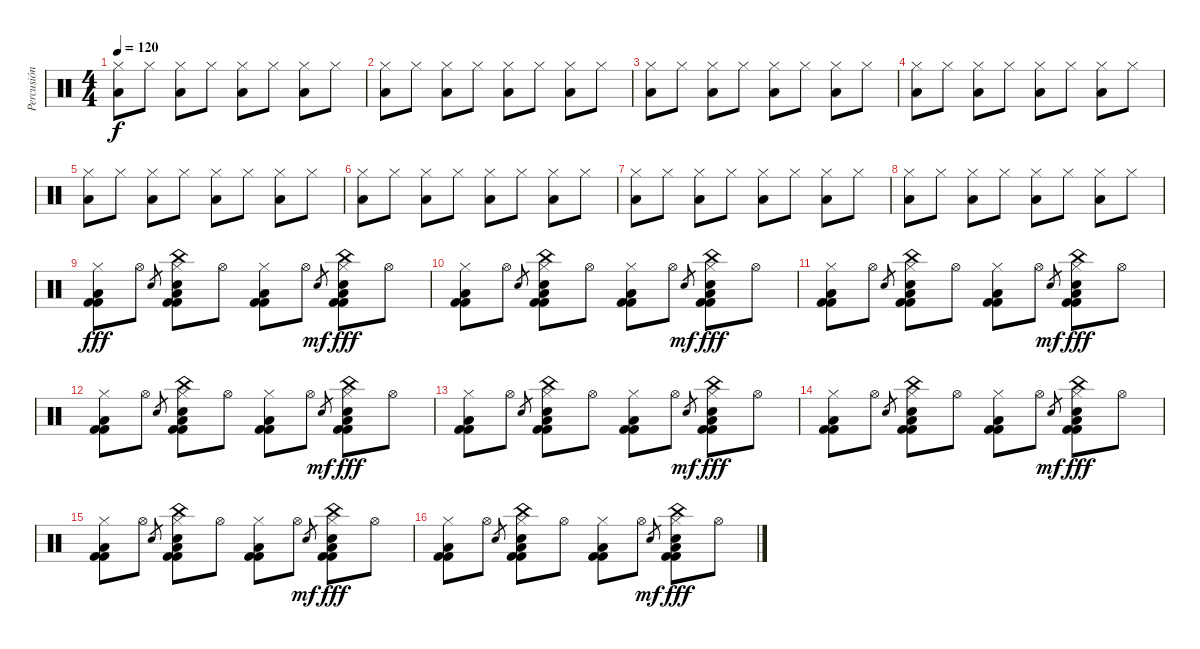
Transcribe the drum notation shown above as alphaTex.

\track ("Percusión II" "Percusión ") {instrument percussion}
\staff {score}
\articulation defaults
\ts (4 4)
\tempo 120
\clef neutral
\ks c
("Hi-Hat (closed)" "Low Floor Tom (hit)").8{dy f} "Hi-Hat (closed)".8 ("Hi-Hat (closed)" "Low Floor Tom (hit)").8 "Hi-Hat (closed)".8 ("Hi-Hat (closed)" "Low Floor Tom (hit)").8 "Hi-Hat (closed)".8 ("Hi-Hat (closed)" "Low Floor Tom (hit)").8 "Hi-Hat (closed)".8 |
("Hi-Hat (closed)" "Low Floor Tom (hit)").8 "Hi-Hat (closed)".8 ("Hi-Hat (closed)" "Low Floor Tom (hit)").8 "Hi-Hat (closed)".8 ("Hi-Hat (closed)" "Low Floor Tom (hit)").8 "Hi-Hat (closed)".8 ("Hi-Hat (closed)" "Low Floor Tom (hit)").8 "Hi-Hat (closed)".8 |
("Hi-Hat (closed)" "Low Floor Tom (hit)").8 "Hi-Hat (closed)".8 ("Hi-Hat (closed)" "Low Floor Tom (hit)").8 "Hi-Hat (closed)".8 ("Hi-Hat (closed)" "Low Floor Tom (hit)").8 "Hi-Hat (closed)".8 ("Hi-Hat (closed)" "Low Floor Tom (hit)").8 "Hi-Hat (closed)".8 |
("Hi-Hat (closed)" "Low Floor Tom (hit)").8 "Hi-Hat (closed)".8 ("Hi-Hat (closed)" "Low Floor Tom (hit)").8 "Hi-Hat (closed)".8 ("Hi-Hat (closed)" "Low Floor Tom (hit)").8 "Hi-Hat (closed)".8 ("Hi-Hat (closed)" "Low Floor Tom (hit)").8 "Hi-Hat (closed)".8 |
("Hi-Hat (closed)" "Low Floor Tom (hit)").8 "Hi-Hat (closed)".8 ("Hi-Hat (closed)" "Low Floor Tom (hit)").8 "Hi-Hat (closed)".8 ("Hi-Hat (closed)" "Low Floor Tom (hit)").8 "Hi-Hat (closed)".8 ("Hi-Hat (closed)" "Low Floor Tom (hit)").8 "Hi-Hat (closed)".8 |
("Hi-Hat (closed)" "Low Floor Tom (hit)").8 "Hi-Hat (closed)".8 ("Hi-Hat (closed)" "Low Floor Tom (hit)").8 "Hi-Hat (closed)".8 ("Hi-Hat (closed)" "Low Floor Tom (hit)").8 "Hi-Hat (closed)".8 ("Hi-Hat (closed)" "Low Floor Tom (hit)").8 "Hi-Hat (closed)".8 |
("Hi-Hat (closed)" "Low Floor Tom (hit)").8 "Hi-Hat (closed)".8 ("Hi-Hat (closed)" "Low Floor Tom (hit)").8 "Hi-Hat (closed)".8 ("Hi-Hat (closed)" "Low Floor Tom (hit)").8 "Hi-Hat (closed)".8 ("Hi-Hat (closed)" "Low Floor Tom (hit)").8 "Hi-Hat (closed)".8 |
("Hi-Hat (closed)" "Low Floor Tom (hit)").8 "Hi-Hat (closed)".8 ("Hi-Hat (closed)" "Low Floor Tom (hit)").8 "Hi-Hat (closed)".8 ("Hi-Hat (closed)" "Low Floor Tom (hit)").8 "Hi-Hat (closed)".8 ("Hi-Hat (closed)" "Low Floor Tom (hit)").8 "Hi-Hat (closed)".8 |
("Kick (hit) 2" "Hi-Hat (closed)" "Low Floor Tom (hit)" "Kick (hit) 2").8{dy fff} "Hi-Hat (open)".8 "Hand Clap (hit)".8{gr} ("Kick (hit) 2" "Hi-Hat (closed)" "Electric Snare (hit)" "China (hit)" "Low Floor Tom (hit)" "Kick (hit) 2").8 "Hi-Hat (open)".8 ("Kick (hit) 2" "Hi-Hat (closed)" "Low Floor Tom (hit)" "Kick (hit) 2").8 "Hi-Hat (open)".8 "Hand Clap (hit)".8{gr dy mf} ("Kick (hit) 2" "Hi-Hat (closed)" "Electric Snare (hit)" "China (hit)" "Low Floor Tom (hit)" "Kick (hit) 2").8{dy fff} "Hi-Hat (open)".8 |
("Kick (hit) 2" "Hi-Hat (closed)" "Low Floor Tom (hit)" "Kick (hit) 2").8 "Hi-Hat (open)".8 "Hand Clap (hit)".8{gr} ("Kick (hit) 2" "Hi-Hat (closed)" "Electric Snare (hit)" "China (hit)" "Low Floor Tom (hit)" "Kick (hit) 2").8 "Hi-Hat (open)".8 ("Kick (hit) 2" "Hi-Hat (closed)" "Low Floor Tom (hit)" "Kick (hit) 2").8 "Hi-Hat (open)".8 "Hand Clap (hit)".8{gr dy mf} ("Kick (hit) 2" "Hi-Hat (closed)" "Electric Snare (hit)" "China (hit)" "Low Floor Tom (hit)" "Kick (hit) 2").8{dy fff} "Hi-Hat (open)".8 |
("Kick (hit) 2" "Hi-Hat (closed)" "Low Floor Tom (hit)" "Kick (hit) 2").8 "Hi-Hat (open)".8 "Hand Clap (hit)".8{gr} ("Kick (hit) 2" "Hi-Hat (closed)" "Electric Snare (hit)" "China (hit)" "Low Floor Tom (hit)" "Kick (hit) 2").8 "Hi-Hat (open)".8 ("Kick (hit) 2" "Hi-Hat (closed)" "Low Floor Tom (hit)" "Kick (hit) 2").8 "Hi-Hat (open)".8 "Hand Clap (hit)".8{gr dy mf} ("Kick (hit) 2" "Hi-Hat (closed)" "Electric Snare (hit)" "China (hit)" "Low Floor Tom (hit)" "Kick (hit) 2").8{dy fff} "Hi-Hat (open)".8 |
("Kick (hit) 2" "Hi-Hat (closed)" "Low Floor Tom (hit)" "Kick (hit) 2").8 "Hi-Hat (open)".8 "Hand Clap (hit)".8{gr} ("Kick (hit) 2" "Hi-Hat (closed)" "Electric Snare (hit)" "China (hit)" "Low Floor Tom (hit)" "Kick (hit) 2").8 "Hi-Hat (open)".8 ("Kick (hit) 2" "Hi-Hat (closed)" "Low Floor Tom (hit)" "Kick (hit) 2").8 "Hi-Hat (open)".8 "Hand Clap (hit)".8{gr dy mf} ("Kick (hit) 2" "Hi-Hat (closed)" "Electric Snare (hit)" "China (hit)" "Low Floor Tom (hit)" "Kick (hit) 2").8{dy fff} "Hi-Hat (open)".8 |
("Kick (hit) 2" "Hi-Hat (closed)" "Low Floor Tom (hit)" "Kick (hit) 2").8 "Hi-Hat (open)".8 "Hand Clap (hit)".8{gr} ("Kick (hit) 2" "Hi-Hat (closed)" "Electric Snare (hit)" "China (hit)" "Low Floor Tom (hit)" "Kick (hit) 2").8 "Hi-Hat (open)".8 ("Kick (hit) 2" "Hi-Hat (closed)" "Low Floor Tom (hit)" "Kick (hit) 2").8 "Hi-Hat (open)".8 "Hand Clap (hit)".8{gr dy mf} ("Kick (hit) 2" "Hi-Hat (closed)" "Electric Snare (hit)" "China (hit)" "Low Floor Tom (hit)" "Kick (hit) 2").8{dy fff} "Hi-Hat (open)".8 |
("Kick (hit) 2" "Hi-Hat (closed)" "Low Floor Tom (hit)" "Kick (hit) 2").8 "Hi-Hat (open)".8 "Hand Clap (hit)".8{gr} ("Kick (hit) 2" "Hi-Hat (closed)" "Electric Snare (hit)" "China (hit)" "Low Floor Tom (hit)" "Kick (hit) 2").8 "Hi-Hat (open)".8 ("Kick (hit) 2" "Hi-Hat (closed)" "Low Floor Tom (hit)" "Kick (hit) 2").8 "Hi-Hat (open)".8 "Hand Clap (hit)".8{gr dy mf} ("Kick (hit) 2" "Hi-Hat (closed)" "Electric Snare (hit)" "China (hit)" "Low Floor Tom (hit)" "Kick (hit) 2").8{dy fff} "Hi-Hat (open)".8 |
("Kick (hit) 2" "Hi-Hat (closed)" "Low Floor Tom (hit)" "Kick (hit) 2").8 "Hi-Hat (open)".8 "Hand Clap (hit)".8{gr} ("Kick (hit) 2" "Hi-Hat (closed)" "Electric Snare (hit)" "China (hit)" "Low Floor Tom (hit)" "Kick (hit) 2").8 "Hi-Hat (open)".8 ("Kick (hit) 2" "Hi-Hat (closed)" "Low Floor Tom (hit)" "Kick (hit) 2").8 "Hi-Hat (open)".8 "Hand Clap (hit)".8{gr dy mf} ("Kick (hit) 2" "Hi-Hat (closed)" "Electric Snare (hit)" "China (hit)" "Low Floor Tom (hit)" "Kick (hit) 2").8{dy fff} "Hi-Hat (open)".8 |
("Kick (hit) 2" "Hi-Hat (closed)" "Low Floor Tom (hit)" "Kick (hit) 2").8 "Hi-Hat (open)".8 "Hand Clap (hit)".8{gr} ("Kick (hit) 2" "Hi-Hat (closed)" "Electric Snare (hit)" "China (hit)" "Low Floor Tom (hit)" "Kick (hit) 2").8 "Hi-Hat (open)".8 ("Kick (hit) 2" "Hi-Hat (closed)" "Low Floor Tom (hit)" "Kick (hit) 2").8 "Hi-Hat (open)".8 "Hand Clap (hit)".8{gr dy mf} ("Kick (hit) 2" "Hi-Hat (closed)" "Electric Snare (hit)" "China (hit)" "Low Floor Tom (hit)" "Kick (hit) 2").8{dy fff} "Hi-Hat (open)".8
